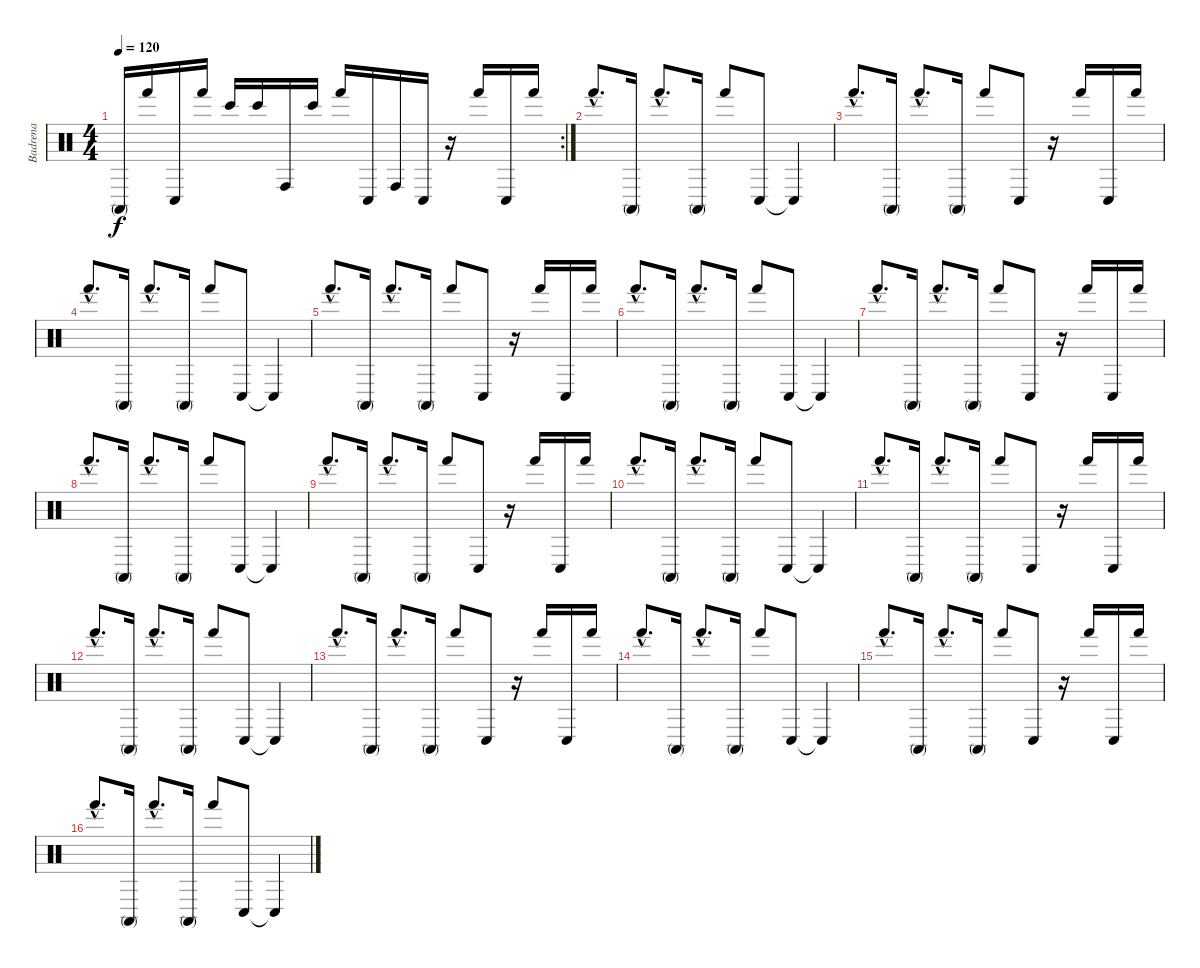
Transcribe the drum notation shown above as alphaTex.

\track ("Badrena" "Badrena") {instrument percussion}
\staff {score}
\articulation defaults
\rc 2
\ts (4 4)
\tempo 120
\clef neutral
\ks c "Conga high (mute)".16{dy f} "Hand (hit)".16 "Conga low (hit)".16 "Hand (hit)".16 "Bongo High (hit)".16 "Bongo High (hit)".16 "Conga high (hit)".16 "Bongo High (hit)".16 "Hand (hit)".16 "Conga low (hit)".16 "Conga high (hit)".16 "Conga low (hit)".16
r.16 "Hand (hit)".16 "Conga low (hit)".16 "Hand (hit)".16 |
"Hand (hit)"{hac}.8{d} "Conga high (mute)".16 "Hand (hit)"{hac}.8{d} "Conga high (mute)".16 "Hand (hit)".8 "Conga low (hit)".8 "Conga low (hit)"{t}.4 |
"Hand (hit)"{hac}.8{d} "Conga high (mute)".16 "Hand (hit)"{hac}.8{d} "Conga high (mute)".16 "Hand (hit)".8 "Conga low (hit)".8 r.16 "Hand (hit)".16 "Conga low (hit)".16 "Hand (hit)".16 |
"Hand (hit)"{hac}.8{d} "Conga high (mute)".16 "Hand (hit)"{hac}.8{d} "Conga high (mute)".16 "Hand (hit)".8 "Conga low (hit)".8 "Conga low (hit)"{t}.4 |
"Hand (hit)"{hac}.8{d} "Conga high (mute)".16 "Hand (hit)"{hac}.8{d} "Conga high (mute)".16 "Hand (hit)".8 "Conga low (hit)".8 r.16 "Hand (hit)".16 "Conga low (hit)".16 "Hand (hit)".16 |
"Hand (hit)"{hac}.8{d} "Conga high (mute)".16 "Hand (hit)"{hac}.8{d} "Conga high (mute)".16 "Hand (hit)".8 "Conga low (hit)".8 "Conga low (hit)"{t}.4 |
"Hand (hit)"{hac}.8{d} "Conga high (mute)".16 "Hand (hit)"{hac}.8{d} "Conga high (mute)".16 "Hand (hit)".8 "Conga low (hit)".8 r.16 "Hand (hit)".16 "Conga low (hit)".16 "Hand (hit)".16 |
"Hand (hit)"{hac}.8{d} "Conga high (mute)".16 "Hand (hit)"{hac}.8{d} "Conga high (mute)".16 "Hand (hit)".8 "Conga low (hit)".8 "Conga low (hit)"{t}.4 |
"Hand (hit)"{hac}.8{d} "Conga high (mute)".16 "Hand (hit)"{hac}.8{d} "Conga high (mute)".16 "Hand (hit)".8 "Conga low (hit)".8 r.16 "Hand (hit)".16 "Conga low (hit)".16 "Hand (hit)".16 |
"Hand (hit)"{hac}.8{d} "Conga high (mute)".16 "Hand (hit)"{hac}.8{d} "Conga high (mute)".16 "Hand (hit)".8 "Conga low (hit)".8 "Conga low (hit)"{t}.4 |
"Hand (hit)"{hac}.8{d} "Conga high (mute)".16 "Hand (hit)"{hac}.8{d} "Conga high (mute)".16 "Hand (hit)".8 "Conga low (hit)".8 r.16 "Hand (hit)".16 "Conga low (hit)".16 "Hand (hit)".16 |
"Hand (hit)"{hac}.8{d} "Conga high (mute)".16 "Hand (hit)"{hac}.8{d} "Conga high (mute)".16 "Hand (hit)".8 "Conga low (hit)".8 "Conga low (hit)"{t}.4 |
"Hand (hit)"{hac}.8{d} "Conga high (mute)".16 "Hand (hit)"{hac}.8{d} "Conga high (mute)".16 "Hand (hit)".8 "Conga low (hit)".8 r.16 "Hand (hit)".16 "Conga low (hit)".16 "Hand (hit)".16 |
"Hand (hit)"{hac}.8{d} "Conga high (mute)".16 "Hand (hit)"{hac}.8{d} "Conga high (mute)".16 "Hand (hit)".8 "Conga low (hit)".8 "Conga low (hit)"{t}.4 |
"Hand (hit)"{hac}.8{d} "Conga high (mute)".16 "Hand (hit)"{hac}.8{d} "Conga high (mute)".16 "Hand (hit)".8 "Conga low (hit)".8 r.16 "Hand (hit)".16 "Conga low (hit)".16 "Hand (hit)".16 |
"Hand (hit)"{hac}.8{d} "Conga high (mute)".16 "Hand (hit)"{hac}.8{d} "Conga high (mute)".16 "Hand (hit)".8 "Conga low (hit)".8 "Conga low (hit)"{t}.4
